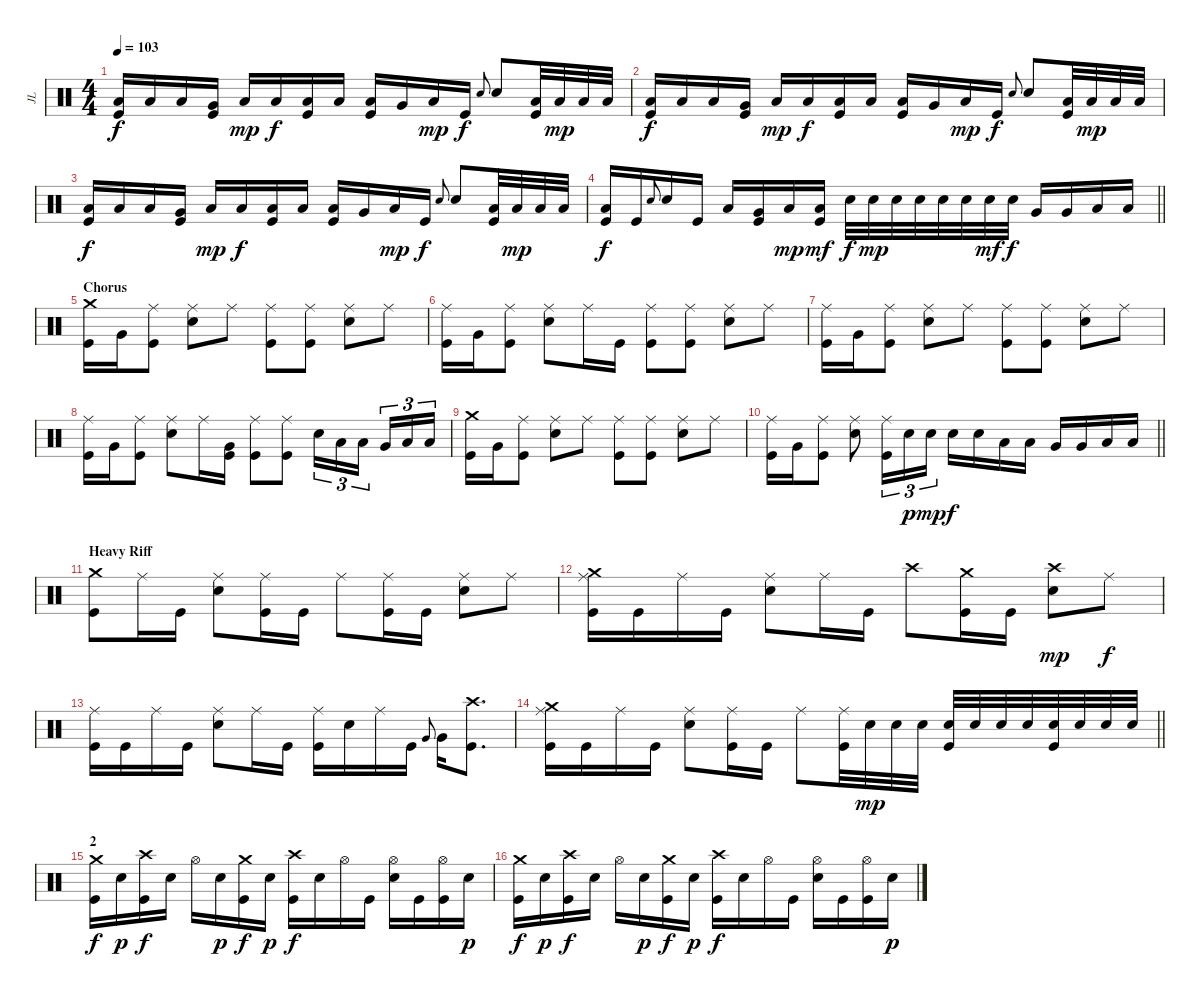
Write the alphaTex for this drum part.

\track ("JL" "JL") {instrument percussion}
\staff {score}
\articulation defaults
\ts (4 4)
\tempo 103
\clef neutral
\ks c
("Low Floor Tom (hit)" "Kick (hit)").16{dy f} "Low Floor Tom (hit)".16 "Low Floor Tom (hit)".16 ("Very Low Tom (hit)" "Kick (hit)").16 "Low Floor Tom (hit)".16{dy mp} "Low Floor Tom (hit)".16{dy f} ("Low Floor Tom (hit)" "Kick (hit)").16 "Low Floor Tom (hit)".16 ("Low Floor Tom (hit)" "Kick (hit)").16 "Very Low Tom (hit)".16 "Low Floor Tom (hit)".16{dy mp} "Kick (hit)".16{dy f} "Electric Snare (hit)".8{gr onbeat} "Electric Snare (hit)".8 ("Low Floor Tom (hit)" "Kick (hit)").32 "Low Floor Tom (hit)".32{dy mp} "Low Floor Tom (hit)".32 "Low Floor Tom (hit)".32 |
("Low Floor Tom (hit)" "Kick (hit)").16{dy f} "Low Floor Tom (hit)".16 "Low Floor Tom (hit)".16 ("Very Low Tom (hit)" "Kick (hit)").16 "Low Floor Tom (hit)".16{dy mp} "Low Floor Tom (hit)".16{dy f} ("Low Floor Tom (hit)" "Kick (hit)").16 "Low Floor Tom (hit)".16 ("Low Floor Tom (hit)" "Kick (hit)").16 "Very Low Tom (hit)".16 "Low Floor Tom (hit)".16{dy mp} "Kick (hit)".16{dy f} "Electric Snare (hit)".8{gr onbeat} "Electric Snare (hit)".8 ("Low Floor Tom (hit)" "Kick (hit)").32 "Low Floor Tom (hit)".32{dy mp} "Low Floor Tom (hit)".32 "Low Floor Tom (hit)".32 |
("Low Floor Tom (hit)" "Kick (hit)").16{dy f} "Low Floor Tom (hit)".16 "Low Floor Tom (hit)".16 ("Very Low Tom (hit)" "Kick (hit)").16 "Low Floor Tom (hit)".16{dy mp} "Low Floor Tom (hit)".16{dy f} ("Low Floor Tom (hit)" "Kick (hit)").16 "Low Floor Tom (hit)".16 ("Low Floor Tom (hit)" "Kick (hit)").16 "Very Low Tom (hit)".16 "Low Floor Tom (hit)".16{dy mp} "Kick (hit)".16{dy f} "Electric Snare (hit)".8{gr onbeat} "Electric Snare (hit)".8 ("Low Floor Tom (hit)" "Kick (hit)").32 "Low Floor Tom (hit)".32{dy mp} "Low Floor Tom (hit)".32 "Low Floor Tom (hit)".32 |
\barLineRight lightlight
("Low Floor Tom (hit)" "Kick (hit)").16{dy f} "Kick (hit)".16 "Electric Snare (hit)".8{gr onbeat} "Electric Snare (hit)".16 "Kick (hit)".16 "Low Floor Tom (hit)".16 ("Very Low Tom (hit)" "Kick (hit)").16 "Low Floor Tom (hit)".16{dy mp} ("Low Floor Tom (hit)" "Kick (hit)").16{dy mf} "Electric Snare (hit)".32{dy f} "Electric Snare (hit)".32{dy mp} "Electric Snare (hit)".32 "Electric Snare (hit)".32 "Electric Snare (hit)".32 "Electric Snare (hit)".32 "Electric Snare (hit)".32{dy mf} "Electric Snare (hit)".32{dy f} "Very Low Tom (hit)".16 "Very Low Tom (hit)".16 "Low Floor Tom (hit)".16 "Low Floor Tom (hit)".16 |
\section ("" "Chorus")
("Crash medium (hit)" "Kick (hit)").16 "Very Low Tom (hit)".16 ("Ride (middle)" "Kick (hit)").8 ("Ride (middle)" "Electric Snare (hit)").8 "Ride (middle)".8 ("Ride (middle)" "Kick (hit)").8 ("Ride (middle)" "Kick (hit)").8 ("Ride (middle)" "Electric Snare (hit)").8 "Ride (middle)".8 |
("Ride (middle)" "Kick (hit)").16 "Very Low Tom (hit)".16 ("Ride (middle)" "Kick (hit)").8 ("Ride (middle)" "Electric Snare (hit)").8 "Ride (middle)".16 "Kick (hit)".16 ("Ride (middle)" "Kick (hit)").8 ("Ride (middle)" "Kick (hit)").8 ("Ride (middle)" "Electric Snare (hit)").8 "Ride (middle)".8 |
("Ride (middle)" "Kick (hit)").16 "Very Low Tom (hit)".16 ("Ride (middle)" "Kick (hit)").8 ("Ride (middle)" "Electric Snare (hit)").8 "Ride (middle)".8 ("Ride (middle)" "Kick (hit)").8 ("Ride (middle)" "Kick (hit)").8 ("Ride (middle)" "Electric Snare (hit)").8 "Ride (middle)".8 |
("Ride (middle)" "Kick (hit)").16 "Very Low Tom (hit)".16 ("Ride (middle)" "Kick (hit)").8 ("Ride (middle)" "Electric Snare (hit)").8 "Ride (middle)".16 ("Very Low Tom (hit)" "Kick (hit)").16 ("Ride (middle)" "Kick (hit)").8 ("Ride (middle)" "Kick (hit)").8 "Electric Snare (hit)".16{tu (3 2)} "Low Tom (hit)".16{tu (3 2)} "Low Tom (hit)".16{tu (3 2) beam splitsecondary} "Very Low Tom (hit)".16{tu (3 2)} "Low Floor Tom (hit)".16{tu (3 2)} "Low Floor Tom (hit)".16{tu (3 2)} |
("Crash medium (hit)" "Kick (hit)").16 "Very Low Tom (hit)".16 ("Ride (middle)" "Kick (hit)").8 ("Ride (middle)" "Electric Snare (hit)").8 "Ride (middle)".8 ("Ride (middle)" "Kick (hit)").8 ("Ride (middle)" "Kick (hit)").8 ("Ride (middle)" "Electric Snare (hit)").8 "Ride (middle)".8 |
\barLineRight lightlight
("Ride (middle)" "Kick (hit)").16 "Very Low Tom (hit)".16 ("Ride (middle)" "Kick (hit)").8 ("Ride (middle)" "Electric Snare (hit)").8 ("Ride (middle)" "Kick (hit)").16{tu (3 2)} "Electric Snare (hit)".16{tu (3 2) dy p} "Electric Snare (hit)".16{tu (3 2) dy mp} "Electric Snare (hit)".16{dy f} "Electric Snare (hit)".16 "Low Tom (hit)".16 "Low Tom (hit)".16 "Very Low Tom (hit)".16 "Very Low Tom (hit)".16 "Low Floor Tom (hit)".16 "Low Floor Tom (hit)".16 |
\section ("" "Heavy Riff")
("Crash medium (hit)" "Kick (hit)").8 "Ride (middle)".16 "Kick (hit)".16 ("Ride (middle)" "Electric Snare (hit)").8 ("Ride (middle)" "Kick (hit)").16 "Kick (hit)".16 "Ride (middle)".8 ("Ride (middle)" "Kick (hit)").16 "Kick (hit)".16 ("Ride (middle)" "Electric Snare (hit)").8 "Ride (middle)".8 |
("Crash medium (hit)" "Ride (middle)" "Kick (hit)").16 "Kick (hit)".16 "Ride (middle)".16 "Kick (hit)".16 ("Ride (middle)" "Electric Snare (hit)").8 "Ride (middle)".16 "Kick (hit)".16 "Crash high (hit)".8 ("Crash medium (hit)" "Kick (hit)").16 "Kick (hit)".16 ("Crash high (hit)" "Electric Snare (hit)").8{dy mp} "Ride (middle)".8{dy f} |
("Ride (middle)" "Kick (hit)").16 "Kick (hit)".16 "Ride (middle)".16 "Kick (hit)".16 ("Ride (middle)" "Electric Snare (hit)").8 "Ride (middle)".16 "Kick (hit)".16 ("Ride (middle)" "Kick (hit)").16 "Electric Snare (hit)".16 "Ride (middle)".16 "Kick (hit)".16 "Very Low Tom (hit)".8{gr onbeat} "Very Low Tom (hit)".16 ("Crash high (hit)" "Kick (hit)").8{d} |
\barLineRight lightlight
("Crash medium (hit)" "Ride (middle)" "Kick (hit)").16 "Kick (hit)".16 "Ride (middle)".16 "Kick (hit)".16 ("Ride (middle)" "Electric Snare (hit)").8 ("Ride (middle)" "Kick (hit)").16 "Kick (hit)".16 "Ride (middle)".8 ("Ride (middle)" "Kick (hit)").32 "Electric Snare (hit)".32{dy mp} "Electric Snare (hit)".32 "Electric Snare (hit)".32 ("Electric Snare (hit)" "Kick (hit)").32 "Electric Snare (hit)".32 "Electric Snare (hit)".32 "Electric Snare (hit)".32 ("Electric Snare (hit)" "Kick (hit)").32 "Electric Snare (hit)".32 "Electric Snare (hit)".32 "Electric Snare (hit)".32 |
\section ("" "2")
("Crash medium (hit)" "Kick (hit)").16{dy f} "Electric Snare (hit)".16{dy p} ("Crash high (hit)" "Kick (hit)").16{dy f} "Electric Snare (hit)".16 "Hi-Hat (open)".16 "Electric Snare (hit)".16{dy p} ("Crash medium (hit)" "Kick (hit)").16{dy f} "Electric Snare (hit)".16{dy p} ("Crash high (hit)" "Kick (hit)").16{dy f} "Electric Snare (hit)".16 "Hi-Hat (open)".16 "Kick (hit)".16 ("Hi-Hat (open)" "Electric Snare (hit)").16 "Kick (hit)".16 ("Hi-Hat (open)" "Kick (hit)").16 "Electric Snare (hit)".16{dy p} |
("Crash medium (hit)" "Kick (hit)").16{dy f} "Electric Snare (hit)".16{dy p} ("Crash high (hit)" "Kick (hit)").16{dy f} "Electric Snare (hit)".16 "Hi-Hat (open)".16 "Electric Snare (hit)".16{dy p} ("Crash medium (hit)" "Kick (hit)").16{dy f} "Electric Snare (hit)".16{dy p} ("Crash high (hit)" "Kick (hit)").16{dy f} "Electric Snare (hit)".16 "Hi-Hat (open)".16 "Kick (hit)".16 ("Hi-Hat (open)" "Electric Snare (hit)").16 "Kick (hit)".16 ("Hi-Hat (open)" "Kick (hit)").16 "Electric Snare (hit)".16{dy p}
